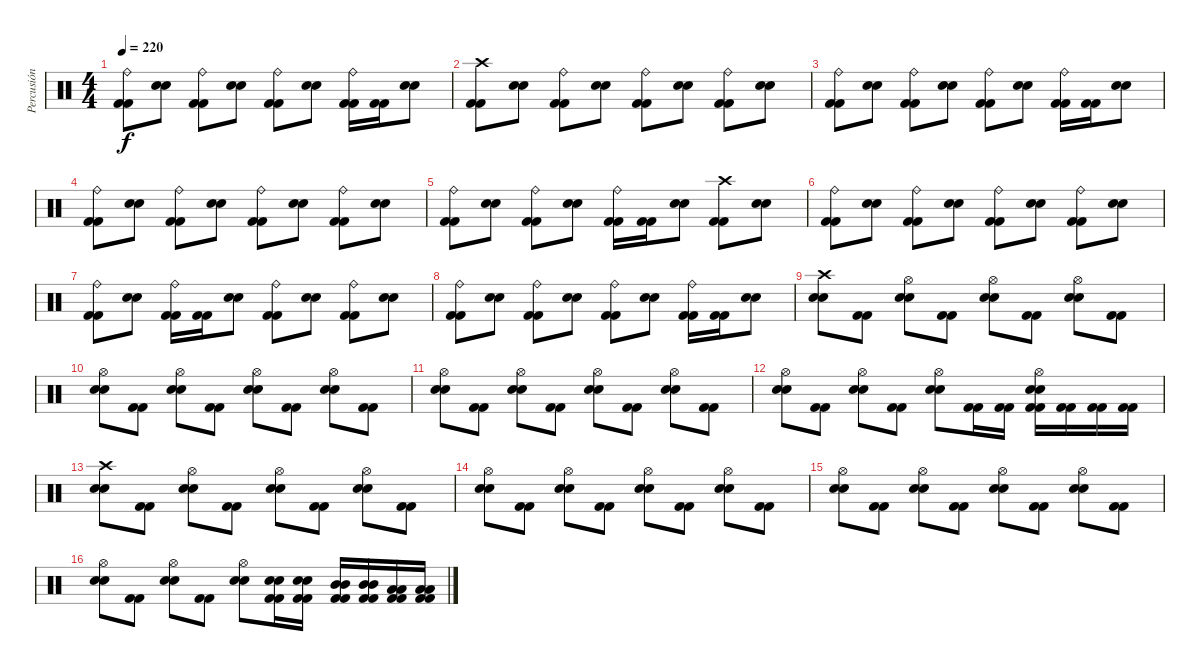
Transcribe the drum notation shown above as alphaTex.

\track ("Percusión" "Percusión") {instrument percussion}
\staff {score}
\articulation defaults
\ts (4 4)
\tempo 220
\clef neutral
\ks c
("Kick (hit) 2" "Kick (hit) 2" "Ride (bell)").8{dy f} ("Electric Snare (hit)" "Electric Snare (hit)").8 ("Kick (hit) 2" "Kick (hit) 2" "Ride (bell)").8 ("Electric Snare (hit)" "Electric Snare (hit)").8 ("Kick (hit) 2" "Kick (hit) 2" "Ride (bell)").8 ("Electric Snare (hit)" "Electric Snare (hit)").8 ("Kick (hit) 2" "Kick (hit) 2" "Ride (bell)").16 ("Kick (hit) 2" "Kick (hit) 2").16 ("Electric Snare (hit)" "Electric Snare (hit)").8 |
("Kick (hit) 2" "Kick (hit) 2" "Crash high (hit)").8 ("Electric Snare (hit)" "Electric Snare (hit)").8 ("Kick (hit) 2" "Kick (hit) 2" "Ride (bell)").8 ("Electric Snare (hit)" "Electric Snare (hit)").8 ("Kick (hit) 2" "Kick (hit) 2" "Ride (bell)").8 ("Electric Snare (hit)" "Electric Snare (hit)").8 ("Kick (hit) 2" "Kick (hit) 2" "Ride (bell)").8 ("Electric Snare (hit)" "Electric Snare (hit)").8 |
("Kick (hit) 2" "Kick (hit) 2" "Ride (bell)").8 ("Electric Snare (hit)" "Electric Snare (hit)").8 ("Kick (hit) 2" "Kick (hit) 2" "Ride (bell)").8 ("Electric Snare (hit)" "Electric Snare (hit)").8 ("Kick (hit) 2" "Kick (hit) 2" "Ride (bell)").8 ("Electric Snare (hit)" "Electric Snare (hit)").8 ("Kick (hit) 2" "Kick (hit) 2" "Ride (bell)").16 ("Kick (hit) 2" "Kick (hit) 2").16 ("Electric Snare (hit)" "Electric Snare (hit)").8 |
("Kick (hit) 2" "Kick (hit) 2" "Ride (bell)").8 ("Electric Snare (hit)" "Electric Snare (hit)").8 ("Kick (hit) 2" "Kick (hit) 2" "Ride (bell)").8 ("Electric Snare (hit)" "Electric Snare (hit)").8 ("Kick (hit) 2" "Kick (hit) 2" "Ride (bell)").8 ("Electric Snare (hit)" "Electric Snare (hit)").8 ("Kick (hit) 2" "Kick (hit) 2" "Ride (bell)").8 ("Electric Snare (hit)" "Electric Snare (hit)").8 |
("Kick (hit) 2" "Kick (hit) 2" "Ride (bell)").8 ("Electric Snare (hit)" "Electric Snare (hit)").8 ("Kick (hit) 2" "Kick (hit) 2" "Ride (bell)").8 ("Electric Snare (hit)" "Electric Snare (hit)").8 ("Kick (hit) 2" "Kick (hit) 2" "Ride (bell)").16 ("Kick (hit) 2" "Kick (hit) 2").16 ("Electric Snare (hit)" "Electric Snare (hit)").8 ("Kick (hit) 2" "Kick (hit) 2" "Crash high (hit)").8 ("Electric Snare (hit)" "Electric Snare (hit)").8 |
("Kick (hit) 2" "Kick (hit) 2" "Ride (bell)").8 ("Electric Snare (hit)" "Electric Snare (hit)").8 ("Kick (hit) 2" "Kick (hit) 2" "Ride (bell)").8 ("Electric Snare (hit)" "Electric Snare (hit)").8 ("Kick (hit) 2" "Kick (hit) 2" "Ride (bell)").8 ("Electric Snare (hit)" "Electric Snare (hit)").8 ("Kick (hit) 2" "Kick (hit) 2" "Ride (bell)").8 ("Electric Snare (hit)" "Electric Snare (hit)").8 |
("Kick (hit) 2" "Kick (hit) 2" "Ride (bell)").8 ("Electric Snare (hit)" "Electric Snare (hit)").8 ("Kick (hit) 2" "Kick (hit) 2" "Ride (bell)").16 ("Kick (hit) 2" "Kick (hit) 2").16 ("Electric Snare (hit)" "Electric Snare (hit)").8 ("Kick (hit) 2" "Kick (hit) 2" "Ride (bell)").8 ("Electric Snare (hit)" "Electric Snare (hit)").8 ("Kick (hit) 2" "Kick (hit) 2" "Ride (bell)").8 ("Electric Snare (hit)" "Electric Snare (hit)").8 |
("Kick (hit) 2" "Kick (hit) 2" "Ride (bell)").8 ("Electric Snare (hit)" "Electric Snare (hit)").8 ("Kick (hit) 2" "Kick (hit) 2" "Ride (bell)").8 ("Electric Snare (hit)" "Electric Snare (hit)").8 ("Kick (hit) 2" "Kick (hit) 2" "Ride (bell)").8 ("Electric Snare (hit)" "Electric Snare (hit)").8 ("Kick (hit) 2" "Kick (hit) 2" "Ride (bell)").16 ("Kick (hit) 2" "Kick (hit) 2").16 ("Electric Snare (hit)" "Electric Snare (hit)").8 |
("Electric Snare (hit)" "Electric Snare (hit)" "Crash high (hit)").8 ("Kick (hit) 2" "Kick (hit) 2").8 ("Electric Snare (hit)" "Electric Snare (hit)" "Hi-Hat (open)").8 ("Kick (hit) 2" "Kick (hit) 2").8 ("Electric Snare (hit)" "Electric Snare (hit)" "Hi-Hat (open)").8 ("Kick (hit) 2" "Kick (hit) 2").8 ("Electric Snare (hit)" "Electric Snare (hit)" "Hi-Hat (open)").8 ("Kick (hit) 2" "Kick (hit) 2").8 |
("Electric Snare (hit)" "Electric Snare (hit)" "Hi-Hat (open)").8 ("Kick (hit) 2" "Kick (hit) 2").8 ("Electric Snare (hit)" "Electric Snare (hit)" "Hi-Hat (open)").8 ("Kick (hit) 2" "Kick (hit) 2").8 ("Electric Snare (hit)" "Electric Snare (hit)" "Hi-Hat (open)").8 ("Kick (hit) 2" "Kick (hit) 2").8 ("Electric Snare (hit)" "Electric Snare (hit)" "Hi-Hat (open)").8 ("Kick (hit) 2" "Kick (hit) 2").8 |
("Electric Snare (hit)" "Electric Snare (hit)" "Hi-Hat (open)").8 ("Kick (hit) 2" "Kick (hit) 2").8 ("Electric Snare (hit)" "Electric Snare (hit)" "Hi-Hat (open)").8 ("Kick (hit) 2" "Kick (hit) 2").8 ("Electric Snare (hit)" "Electric Snare (hit)" "Hi-Hat (open)").8 ("Kick (hit) 2" "Kick (hit) 2").8 ("Electric Snare (hit)" "Electric Snare (hit)" "Hi-Hat (open)").8 ("Kick (hit) 2" "Kick (hit) 2").8 |
("Electric Snare (hit)" "Electric Snare (hit)" "Hi-Hat (open)").8 ("Kick (hit) 2" "Kick (hit) 2").8 ("Electric Snare (hit)" "Electric Snare (hit)" "Hi-Hat (open)").8 ("Kick (hit) 2" "Kick (hit) 2").8 ("Electric Snare (hit)" "Electric Snare (hit)" "Hi-Hat (open)").8 ("Kick (hit) 2" "Kick (hit) 2").16 ("Kick (hit) 2" "Kick (hit) 2").16 ("Kick (hit) 2" "Kick (hit) 2" "Electric Snare (hit)" "Electric Snare (hit)" "Hi-Hat (open)").16 ("Kick (hit) 2" "Kick (hit) 2").16 ("Kick (hit) 2" "Kick (hit) 2").16 ("Kick (hit) 2" "Kick (hit) 2").16 |
("Electric Snare (hit)" "Electric Snare (hit)" "Crash high (hit)").8 ("Kick (hit) 2" "Kick (hit) 2").8 ("Electric Snare (hit)" "Electric Snare (hit)" "Hi-Hat (open)").8 ("Kick (hit) 2" "Kick (hit) 2").8 ("Electric Snare (hit)" "Electric Snare (hit)" "Hi-Hat (open)").8 ("Kick (hit) 2" "Kick (hit) 2").8 ("Electric Snare (hit)" "Electric Snare (hit)" "Hi-Hat (open)").8 ("Kick (hit) 2" "Kick (hit) 2").8 |
("Electric Snare (hit)" "Electric Snare (hit)" "Hi-Hat (open)").8 ("Kick (hit) 2" "Kick (hit) 2").8 ("Electric Snare (hit)" "Electric Snare (hit)" "Hi-Hat (open)").8 ("Kick (hit) 2" "Kick (hit) 2").8 ("Electric Snare (hit)" "Electric Snare (hit)" "Hi-Hat (open)").8 ("Kick (hit) 2" "Kick (hit) 2").8 ("Electric Snare (hit)" "Electric Snare (hit)" "Hi-Hat (open)").8 ("Kick (hit) 2" "Kick (hit) 2").8 |
("Electric Snare (hit)" "Electric Snare (hit)" "Hi-Hat (open)").8 ("Kick (hit) 2" "Kick (hit) 2").8 ("Electric Snare (hit)" "Electric Snare (hit)" "Hi-Hat (open)").8 ("Kick (hit) 2" "Kick (hit) 2").8 ("Electric Snare (hit)" "Electric Snare (hit)" "Hi-Hat (open)").8 ("Kick (hit) 2" "Kick (hit) 2").8 ("Electric Snare (hit)" "Electric Snare (hit)" "Hi-Hat (open)").8 ("Kick (hit) 2" "Kick (hit) 2").8 |
("Electric Snare (hit)" "Electric Snare (hit)" "Hi-Hat (open)").8 ("Kick (hit) 2" "Kick (hit) 2").8 ("Electric Snare (hit)" "Electric Snare (hit)" "Hi-Hat (open)").8 ("Kick (hit) 2" "Kick (hit) 2").8 ("Electric Snare (hit)" "Electric Snare (hit)" "Hi-Hat (open)").8 ("Kick (hit) 2" "Kick (hit) 2" "Electric Snare (hit)" "Electric Snare (hit)").16 ("Kick (hit) 2" "Kick (hit) 2" "Electric Snare (hit)" "Electric Snare (hit)").16 ("Kick (hit) 2" "Kick (hit) 2" "Mid Tom (hit)" "Mid Tom (hit)").16 ("Kick (hit) 2" "Kick (hit) 2" "Mid Tom (hit)" "Mid Tom (hit)").16 ("Kick (hit) 2" "Kick (hit) 2" "Low Floor Tom (hit)" "Low Floor Tom (hit)").16 ("Kick (hit) 2" "Kick (hit) 2" "Low Floor Tom (hit)" "Low Floor Tom (hit)").16
